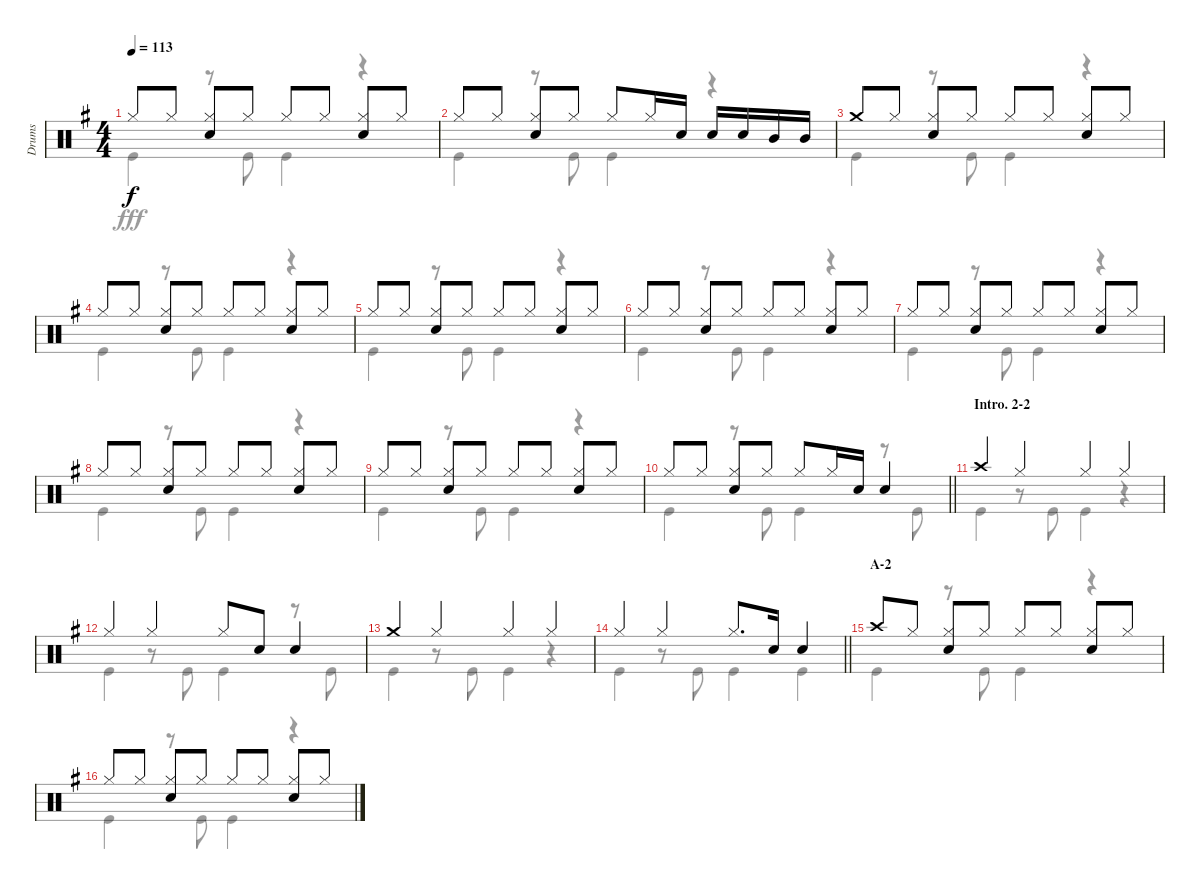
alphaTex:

\track ("Drums" "Drums") {instrument percussion}
\staff {score}
\articulation defaults
\voice
\ts (4 4)
\tempo 113
\clef neutral
\ks g "Hi-Hat (closed)".8{dy f} "Hi-Hat (closed)".8
("Hi-Hat (closed)" "Snare (hit) 2").8 "Hi-Hat (closed)".8 "Hi-Hat (closed)".8 "Hi-Hat (closed)".8 ("Hi-Hat (closed)" "Snare (hit) 2").8 "Hi-Hat (closed)".8 |
"Hi-Hat (closed)".8 "Hi-Hat (closed)".8 ("Hi-Hat (closed)" "Snare (hit) 2").8 "Hi-Hat (closed)".8 "Hi-Hat (closed)".8 "Hi-Hat (closed)".16 "Snare (hit) 2".16 "Snare (hit) 2".16 "Snare (hit) 2".16 "Mid Tom (hit)".16 "Mid Tom (hit)".16 |
"Crash medium (hit)".8 "Hi-Hat (closed)".8 ("Hi-Hat (closed)" "Snare (hit) 2").8 "Hi-Hat (closed)".8 "Hi-Hat (closed)".8 "Hi-Hat (closed)".8 ("Hi-Hat (closed)" "Snare (hit) 2").8 "Hi-Hat (closed)".8 |
"Hi-Hat (closed)".8 "Hi-Hat (closed)".8 ("Hi-Hat (closed)" "Snare (hit) 2").8 "Hi-Hat (closed)".8 "Hi-Hat (closed)".8 "Hi-Hat (closed)".8 ("Hi-Hat (closed)" "Snare (hit) 2").8 "Hi-Hat (closed)".8 |
"Hi-Hat (closed)".8 "Hi-Hat (closed)".8 ("Hi-Hat (closed)" "Snare (hit) 2").8 "Hi-Hat (closed)".8 "Hi-Hat (closed)".8 "Hi-Hat (closed)".8 ("Hi-Hat (closed)" "Snare (hit) 2").8 "Hi-Hat (closed)".8 |
"Hi-Hat (closed)".8 "Hi-Hat (closed)".8 ("Hi-Hat (closed)" "Snare (hit) 2").8 "Hi-Hat (closed)".8 "Hi-Hat (closed)".8 "Hi-Hat (closed)".8 ("Hi-Hat (closed)" "Snare (hit) 2").8 "Hi-Hat (closed)".8 |
"Hi-Hat (closed)".8 "Hi-Hat (closed)".8 ("Hi-Hat (closed)" "Snare (hit) 2").8 "Hi-Hat (closed)".8 "Hi-Hat (closed)".8 "Hi-Hat (closed)".8 ("Hi-Hat (closed)" "Snare (hit) 2").8 "Hi-Hat (closed)".8 |
"Hi-Hat (closed)".8 "Hi-Hat (closed)".8 ("Hi-Hat (closed)" "Snare (hit) 2").8 "Hi-Hat (closed)".8 "Hi-Hat (closed)".8 "Hi-Hat (closed)".8 ("Hi-Hat (closed)" "Snare (hit) 2").8 "Hi-Hat (closed)".8 |
"Hi-Hat (closed)".8 "Hi-Hat (closed)".8 ("Hi-Hat (closed)" "Snare (hit) 2").8 "Hi-Hat (closed)".8 "Hi-Hat (closed)".8 "Hi-Hat (closed)".8 ("Hi-Hat (closed)" "Snare (hit) 2").8 "Hi-Hat (closed)".8 |
\barLineRight lightlight "Hi-Hat (closed)".8 "Hi-Hat (closed)".8
("Hi-Hat (closed)" "Snare (hit) 2").8 "Hi-Hat (closed)".8 "Hi-Hat (closed)".8 "Hi-Hat (closed)".16 "Snare (hit) 2".16 "Snare (hit) 2".4 |
\section ("" "Intro. 2-2")
"Crash high (hit)".4 "Hi-Hat (closed)".4 "Hi-Hat (closed)".4 "Hi-Hat (closed)".4 |
"Hi-Hat (closed)".4 "Hi-Hat (closed)".4 "Hi-Hat (closed)".8 "Snare (hit) 2".8 "Snare (hit) 2".4 |
"Crash medium (hit)".4 "Hi-Hat (closed)".4 "Hi-Hat (closed)".4 "Hi-Hat (closed)".4 |
\barLineRight lightlight "Hi-Hat (closed)".4 "Hi-Hat (closed)".4 "Hi-Hat (closed)".8{d} "Snare (hit) 2".16 "Snare (hit) 2".4
|
\section ("" "A-2")
"Crash high (hit)".8 "Hi-Hat (closed)".8 ("Hi-Hat (closed)" "Snare (hit) 2").8 "Hi-Hat (closed)".8 "Hi-Hat (closed)".8 "Hi-Hat (closed)".8 ("Hi-Hat (closed)" "Snare (hit) 2").8 "Hi-Hat (closed)".8 |
"Hi-Hat (closed)".8 "Hi-Hat (closed)".8 ("Hi-Hat (closed)" "Snare (hit) 2").8 "Hi-Hat (closed)".8 "Hi-Hat (closed)".8 "Hi-Hat (closed)".8 ("Hi-Hat (closed)" "Snare (hit) 2").8 "Hi-Hat (closed)".8
\voice
\clef neutral
\ottava regular
\simile none
\ks g "Kick (hit)".4{dy fff}
r.8 "Kick (hit)".8 "Kick (hit)".4 r.4 |
"Kick (hit)".4 r.8 "Kick (hit)".8 "Kick (hit)".4 r.4 |
"Kick (hit)".4 r.8 "Kick (hit)".8 "Kick (hit)".4 r.4 |
"Kick (hit)".4 r.8 "Kick (hit)".8 "Kick (hit)".4 r.4 |
"Kick (hit)".4 r.8 "Kick (hit)".8 "Kick (hit)".4 r.4 |
"Kick (hit)".4 r.8 "Kick (hit)".8 "Kick (hit)".4 r.4 |
"Kick (hit)".4 r.8 "Kick (hit)".8 "Kick (hit)".4 r.4 |
"Kick (hit)".4 r.8 "Kick (hit)".8 "Kick (hit)".4 r.4 |
"Kick (hit)".4 r.8 "Kick (hit)".8 "Kick (hit)".4 r.4 |
\barLineRight lightlight "Kick (hit)".4
r.8 "Kick (hit)".8 "Kick (hit)".4 r.8 "Kick (hit)".8 |
"Kick (hit)".4 r.8 "Kick (hit)".8 "Kick (hit)".4 r.4 |
"Kick (hit)".4 r.8 "Kick (hit)".8 "Kick (hit)".4 r.8 "Kick (hit)".8 |
"Kick (hit)".4 r.8 "Kick (hit)".8 "Kick (hit)".4 r.4 |
\barLineRight lightlight "Kick (hit)".4
r.8 "Kick (hit)".8 "Kick (hit)".4 "Kick (hit)".4 |
"Kick (hit)".4 r.8 "Kick (hit)".8 "Kick (hit)".4 r.4 |
"Kick (hit)".4 r.8 "Kick (hit)".8 "Kick (hit)".4 r.4
